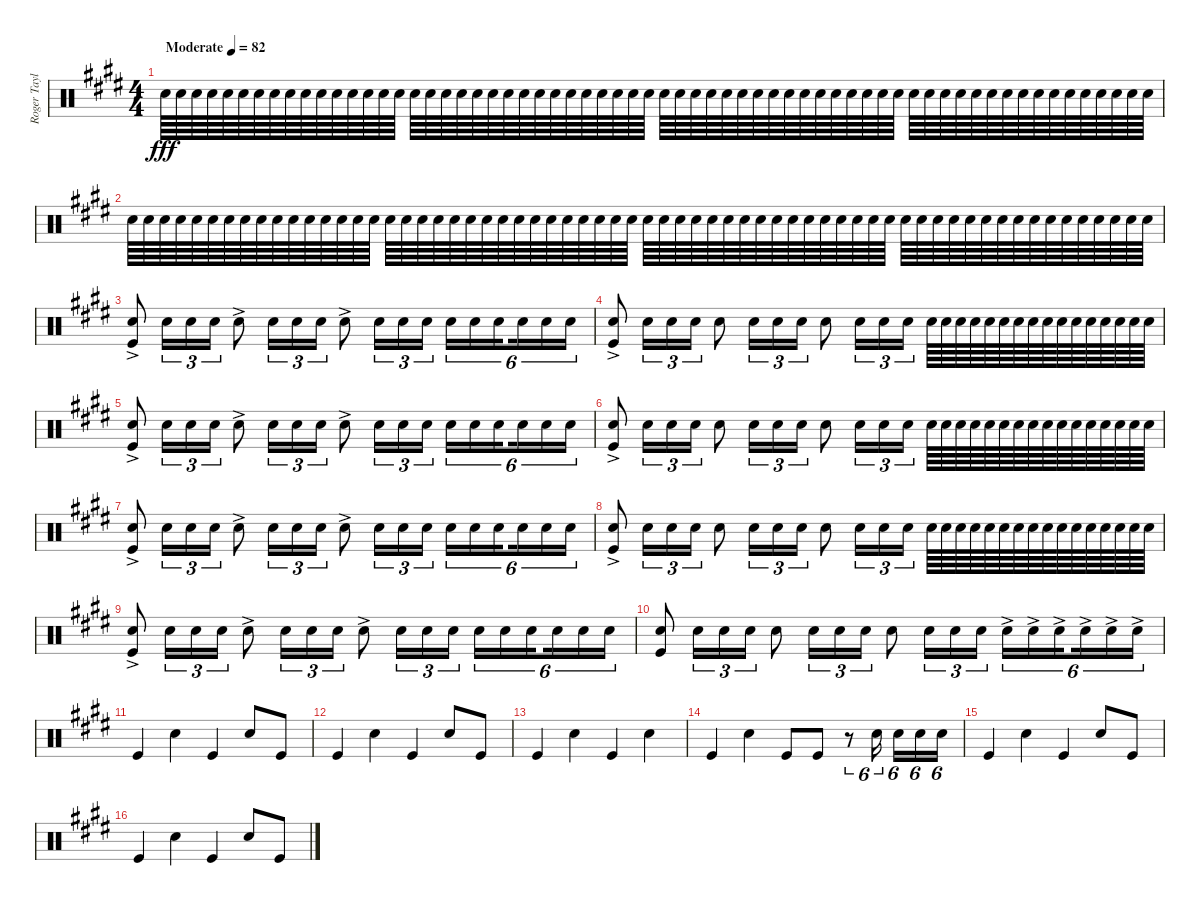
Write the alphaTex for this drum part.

\track ("Roger Taylor" "Roger Tayl") {instrument percussion}
\staff {score}
\articulation defaults
\ts (4 4)
\tempo (82 "Moderate")
\clef neutral
\ks e "Snare (hit) 2".64{dy fff} "Snare (hit) 2".64 "Snare (hit) 2".64 "Snare (hit) 2".64 "Snare (hit) 2".64 "Snare (hit) 2".64 "Snare (hit) 2".64 "Snare (hit) 2".64 "Snare (hit) 2".64 "Snare (hit) 2".64 "Snare (hit) 2".64 "Snare (hit) 2".64 "Snare (hit) 2".64 "Snare (hit) 2".64 "Snare (hit) 2".64 "Snare (hit) 2".64 "Snare (hit) 2".64 "Snare (hit) 2".64 "Snare (hit) 2".64 "Snare (hit) 2".64 "Snare (hit) 2".64 "Snare (hit) 2".64 "Snare (hit) 2".64 "Snare (hit) 2".64 "Snare (hit) 2".64 "Snare (hit) 2".64 "Snare (hit) 2".64 "Snare (hit) 2".64 "Snare (hit) 2".64 "Snare (hit) 2".64 "Snare (hit) 2".64 "Snare (hit) 2".64 "Snare (hit) 2".64 "Snare (hit) 2".64 "Snare (hit) 2".64 "Snare (hit) 2".64 "Snare (hit) 2".64 "Snare (hit) 2".64 "Snare (hit) 2".64 "Snare (hit) 2".64 "Snare (hit) 2".64 "Snare (hit) 2".64 "Snare (hit) 2".64 "Snare (hit) 2".64 "Snare (hit) 2".64 "Snare (hit) 2".64 "Snare (hit) 2".64 "Snare (hit) 2".64 "Snare (hit) 2".64 "Snare (hit) 2".64 "Snare (hit) 2".64 "Snare (hit) 2".64 "Snare (hit) 2".64 "Snare (hit) 2".64 "Snare (hit) 2".64 "Snare (hit) 2".64 "Snare (hit) 2".64 "Snare (hit) 2".64 "Snare (hit) 2".64 "Snare (hit) 2".64 "Snare (hit) 2".64 "Snare (hit) 2".64 "Snare (hit) 2".64 "Snare (hit) 2".64
|
"Snare (hit) 2".64 "Snare (hit) 2".64 "Snare (hit) 2".64 "Snare (hit) 2".64 "Snare (hit) 2".64 "Snare (hit) 2".64 "Snare (hit) 2".64 "Snare (hit) 2".64 "Snare (hit) 2".64 "Snare (hit) 2".64 "Snare (hit) 2".64 "Snare (hit) 2".64 "Snare (hit) 2".64 "Snare (hit) 2".64 "Snare (hit) 2".64 "Snare (hit) 2".64 "Snare (hit) 2".64 "Snare (hit) 2".64 "Snare (hit) 2".64 "Snare (hit) 2".64 "Snare (hit) 2".64 "Snare (hit) 2".64 "Snare (hit) 2".64 "Snare (hit) 2".64 "Snare (hit) 2".64 "Snare (hit) 2".64 "Snare (hit) 2".64 "Snare (hit) 2".64 "Snare (hit) 2".64 "Snare (hit) 2".64 "Snare (hit) 2".64 "Snare (hit) 2".64 "Snare (hit) 2".64 "Snare (hit) 2".64 "Snare (hit) 2".64 "Snare (hit) 2".64 "Snare (hit) 2".64 "Snare (hit) 2".64 "Snare (hit) 2".64 "Snare (hit) 2".64 "Snare (hit) 2".64 "Snare (hit) 2".64 "Snare (hit) 2".64 "Snare (hit) 2".64 "Snare (hit) 2".64 "Snare (hit) 2".64 "Snare (hit) 2".64 "Snare (hit) 2".64 "Snare (hit) 2".64 "Snare (hit) 2".64 "Snare (hit) 2".64 "Snare (hit) 2".64 "Snare (hit) 2".64 "Snare (hit) 2".64 "Snare (hit) 2".64 "Snare (hit) 2".64 "Snare (hit) 2".64 "Snare (hit) 2".64 "Snare (hit) 2".64 "Snare (hit) 2".64 "Snare (hit) 2".64 "Snare (hit) 2".64 "Snare (hit) 2".64 "Snare (hit) 2".64 |
("Snare (hit) 2" "Kick (hit)"{ac}).8 "Snare (hit) 2".16{tu (3 2)} "Snare (hit) 2".16{tu (3 2)} "Snare (hit) 2".16{tu (3 2)} "Snare (hit) 2"{ac}.8 "Snare (hit) 2".16{tu (3 2)} "Snare (hit) 2".16{tu (3 2)} "Snare (hit) 2".16{tu (3 2)} "Snare (hit) 2"{ac}.8 "Snare (hit) 2".16{tu (3 2)} "Snare (hit) 2".16{tu (3 2)} "Snare (hit) 2".16{tu (3 2)} "Snare (hit) 2".16{tu (6 4)} "Snare (hit) 2".16{tu (6 4)} "Snare (hit) 2".16{tu (6 4) beam splitsecondary} "Snare (hit) 2".16{tu (6 4)} "Snare (hit) 2".16{tu (6 4)} "Snare (hit) 2".16{tu (6 4)} |
("Snare (hit) 2" "Kick (hit)"{ac}).8 "Snare (hit) 2".16{tu (3 2)} "Snare (hit) 2".16{tu (3 2)} "Snare (hit) 2".16{tu (3 2)} "Snare (hit) 2".8 "Snare (hit) 2".16{tu (3 2)} "Snare (hit) 2".16{tu (3 2)} "Snare (hit) 2".16{tu (3 2)} "Snare (hit) 2".8 "Snare (hit) 2".16{tu (3 2)} "Snare (hit) 2".16{tu (3 2)} "Snare (hit) 2".16{tu (3 2)} "Snare (hit) 2".64 "Snare (hit) 2".64 "Snare (hit) 2".64 "Snare (hit) 2".64 "Snare (hit) 2".64 "Snare (hit) 2".64 "Snare (hit) 2".64 "Snare (hit) 2".64 "Snare (hit) 2".64 "Snare (hit) 2".64 "Snare (hit) 2".64 "Snare (hit) 2".64 "Snare (hit) 2".64 "Snare (hit) 2".64 "Snare (hit) 2".64 "Snare (hit) 2".64 |
("Snare (hit) 2" "Kick (hit)"{ac}).8 "Snare (hit) 2".16{tu (3 2)} "Snare (hit) 2".16{tu (3 2)} "Snare (hit) 2".16{tu (3 2)} "Snare (hit) 2"{ac}.8 "Snare (hit) 2".16{tu (3 2)} "Snare (hit) 2".16{tu (3 2)} "Snare (hit) 2".16{tu (3 2)} "Snare (hit) 2"{ac}.8 "Snare (hit) 2".16{tu (3 2)} "Snare (hit) 2".16{tu (3 2)} "Snare (hit) 2".16{tu (3 2)} "Snare (hit) 2".16{tu (6 4)} "Snare (hit) 2".16{tu (6 4)} "Snare (hit) 2".16{tu (6 4) beam splitsecondary} "Snare (hit) 2".16{tu (6 4)} "Snare (hit) 2".16{tu (6 4)} "Snare (hit) 2".16{tu (6 4)} |
("Snare (hit) 2" "Kick (hit)"{ac}).8 "Snare (hit) 2".16{tu (3 2)} "Snare (hit) 2".16{tu (3 2)} "Snare (hit) 2".16{tu (3 2)} "Snare (hit) 2".8 "Snare (hit) 2".16{tu (3 2)} "Snare (hit) 2".16{tu (3 2)} "Snare (hit) 2".16{tu (3 2)} "Snare (hit) 2".8 "Snare (hit) 2".16{tu (3 2)} "Snare (hit) 2".16{tu (3 2)} "Snare (hit) 2".16{tu (3 2)} "Snare (hit) 2".64 "Snare (hit) 2".64 "Snare (hit) 2".64 "Snare (hit) 2".64 "Snare (hit) 2".64 "Snare (hit) 2".64 "Snare (hit) 2".64 "Snare (hit) 2".64 "Snare (hit) 2".64 "Snare (hit) 2".64 "Snare (hit) 2".64 "Snare (hit) 2".64 "Snare (hit) 2".64 "Snare (hit) 2".64 "Snare (hit) 2".64 "Snare (hit) 2".64 |
("Snare (hit) 2" "Kick (hit)"{ac}).8 "Snare (hit) 2".16{tu (3 2)} "Snare (hit) 2".16{tu (3 2)} "Snare (hit) 2".16{tu (3 2)} "Snare (hit) 2"{ac}.8 "Snare (hit) 2".16{tu (3 2)} "Snare (hit) 2".16{tu (3 2)} "Snare (hit) 2".16{tu (3 2)} "Snare (hit) 2"{ac}.8 "Snare (hit) 2".16{tu (3 2)} "Snare (hit) 2".16{tu (3 2)} "Snare (hit) 2".16{tu (3 2)} "Snare (hit) 2".16{tu (6 4)} "Snare (hit) 2".16{tu (6 4)} "Snare (hit) 2".16{tu (6 4) beam splitsecondary} "Snare (hit) 2".16{tu (6 4)} "Snare (hit) 2".16{tu (6 4)} "Snare (hit) 2".16{tu (6 4)} |
("Snare (hit) 2" "Kick (hit)"{ac}).8 "Snare (hit) 2".16{tu (3 2)} "Snare (hit) 2".16{tu (3 2)} "Snare (hit) 2".16{tu (3 2)} "Snare (hit) 2".8 "Snare (hit) 2".16{tu (3 2)} "Snare (hit) 2".16{tu (3 2)} "Snare (hit) 2".16{tu (3 2)} "Snare (hit) 2".8 "Snare (hit) 2".16{tu (3 2)} "Snare (hit) 2".16{tu (3 2)} "Snare (hit) 2".16{tu (3 2)} "Snare (hit) 2".64 "Snare (hit) 2".64 "Snare (hit) 2".64 "Snare (hit) 2".64 "Snare (hit) 2".64 "Snare (hit) 2".64 "Snare (hit) 2".64 "Snare (hit) 2".64 "Snare (hit) 2".64 "Snare (hit) 2".64 "Snare (hit) 2".64 "Snare (hit) 2".64 "Snare (hit) 2".64 "Snare (hit) 2".64 "Snare (hit) 2".64 "Snare (hit) 2".64 |
("Snare (hit) 2" "Kick (hit)"{ac}).8 "Snare (hit) 2".16{tu (3 2)} "Snare (hit) 2".16{tu (3 2)} "Snare (hit) 2".16{tu (3 2)} "Snare (hit) 2"{ac}.8 "Snare (hit) 2".16{tu (3 2)} "Snare (hit) 2".16{tu (3 2)} "Snare (hit) 2".16{tu (3 2)} "Snare (hit) 2"{ac}.8 "Snare (hit) 2".16{tu (3 2)} "Snare (hit) 2".16{tu (3 2)} "Snare (hit) 2".16{tu (3 2)} "Snare (hit) 2".16{tu (6 4)} "Snare (hit) 2".16{tu (6 4)} "Snare (hit) 2".16{tu (6 4) beam splitsecondary} "Snare (hit) 2".16{tu (6 4)} "Snare (hit) 2".16{tu (6 4)} "Snare (hit) 2".16{tu (6 4)} |
("Snare (hit) 2" "Kick (hit)").8 "Snare (hit) 2".16{tu (3 2)} "Snare (hit) 2".16{tu (3 2)} "Snare (hit) 2".16{tu (3 2)} "Snare (hit) 2".8 "Snare (hit) 2".16{tu (3 2)} "Snare (hit) 2".16{tu (3 2)} "Snare (hit) 2".16{tu (3 2)} "Snare (hit) 2".8 "Snare (hit) 2".16{tu (3 2)} "Snare (hit) 2".16{tu (3 2)} "Snare (hit) 2".16{tu (3 2)} "Snare (hit) 2"{ac}.16{tu (6 4)} "Snare (hit) 2"{ac}.16{tu (6 4)} "Snare (hit) 2"{ac}.16{tu (6 4) beam splitsecondary} "Snare (hit) 2"{ac}.16{tu (6 4)} "Snare (hit) 2"{ac}.16{tu (6 4)} "Snare (hit) 2"{ac}.16{tu (6 4)} |
"Kick (hit)".4 "Snare (hit) 2".4 "Kick (hit)".4 "Snare (hit) 2".8 "Kick (hit)".8 |
"Kick (hit)".4 "Snare (hit) 2".4 "Kick (hit)".4 "Snare (hit) 2".8 "Kick (hit)".8 |
"Kick (hit)".4 "Snare (hit) 2".4 "Kick (hit)".4 "Snare (hit) 2".4 |
"Kick (hit)".4 "Snare (hit) 2".4 "Kick (hit)".8 "Kick (hit)".8 r.8{tu (6 4)} "Snare (hit) 2".16{tu (6 4) beam splitsecondary} "Snare (hit) 2".16{tu (6 4)} "Snare (hit) 2".16{tu (6 4)} "Snare (hit) 2".16{tu (6 4)} |
"Kick (hit)".4 "Snare (hit) 2".4 "Kick (hit)".4 "Snare (hit) 2".8 "Kick (hit)".8 |
"Kick (hit)".4 "Snare (hit) 2".4 "Kick (hit)".4 "Snare (hit) 2".8 "Kick (hit)".8
